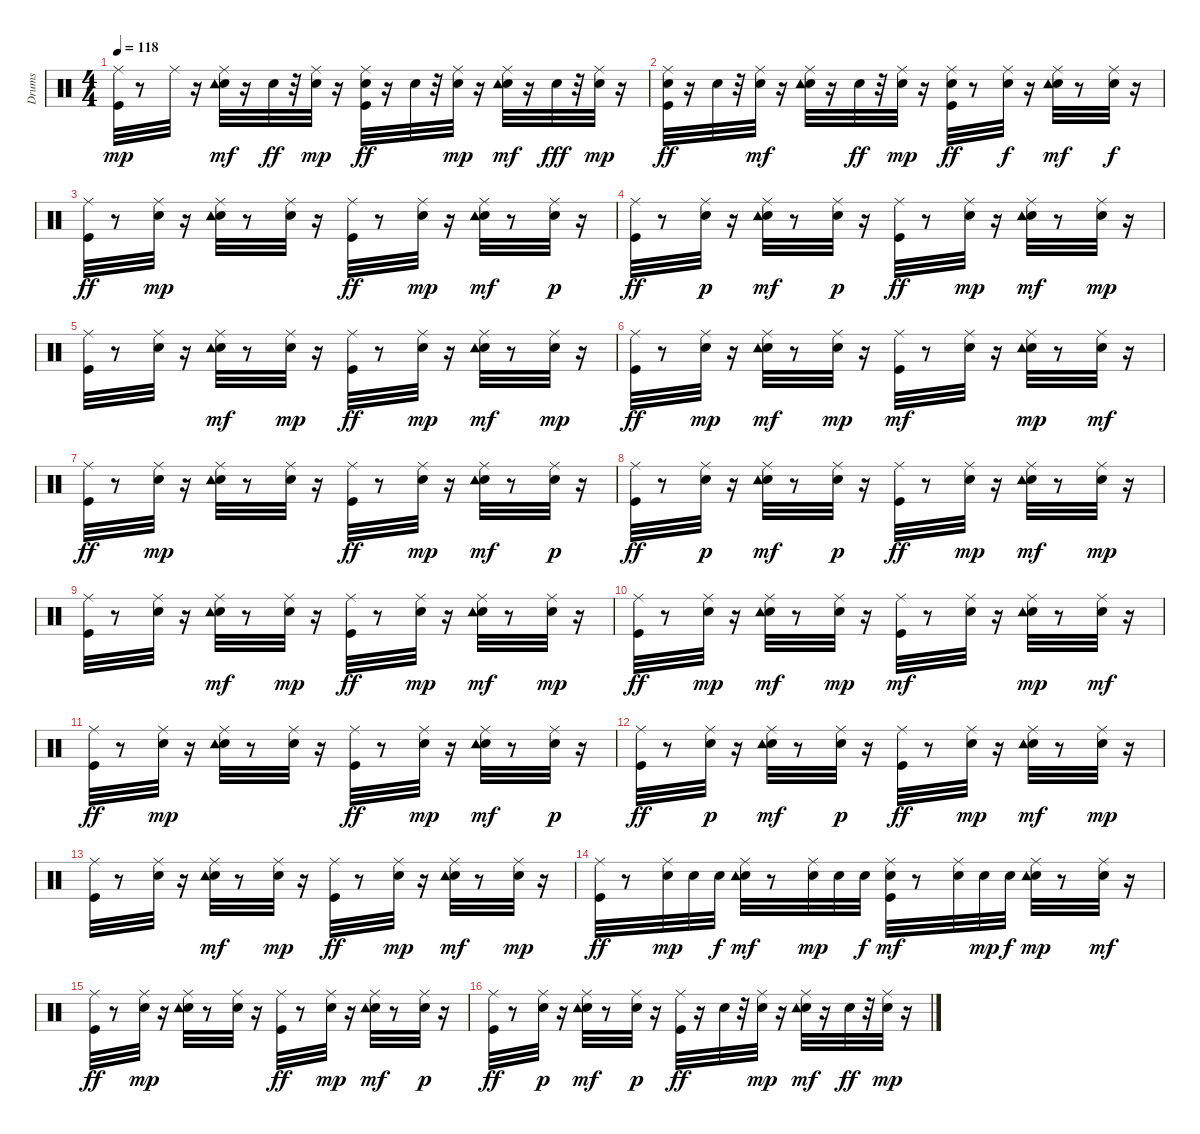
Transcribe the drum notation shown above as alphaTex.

\track ("Drums" "Drums") {instrument percussion}
\staff {score}
\articulation defaults
\ts (4 4)
\tempo 118
\clef neutral
\ks c
("Kick (hit)" "Ride (middle)").32{dy mp} r.8 "Ride (middle)".32 r.16 ("Electric Snare (hit)" "Ride (middle)" "Tambourine (hit)").32{dy mf} r.16 "Electric Snare (hit)".32{dy ff} r.32 ("Electric Snare (hit)" "Ride (middle)").32{dy mp} r.16 ("Electric Snare (hit)" "Ride (middle)" "Kick (hit)").32{dy ff} r.16 "Electric Snare (hit)".32 r.32 ("Electric Snare (hit)" "Ride (middle)").32{dy mp} r.16 ("Electric Snare (hit)" "Ride (middle)" "Tambourine (hit)").32{dy mf} r.16 "Electric Snare (hit)".32{dy fff} r.32 ("Electric Snare (hit)" "Ride (middle)").32{dy mp} r.16 |
("Electric Snare (hit)" "Ride (middle)" "Kick (hit)").32{dy ff} r.16 "Electric Snare (hit)".32 r.32 ("Electric Snare (hit)" "Ride (middle)").32{dy mf} r.16 ("Electric Snare (hit)" "Ride (middle)" "Tambourine (hit)").32 r.16 "Electric Snare (hit)".32{dy ff} r.32 ("Electric Snare (hit)" "Ride (middle)").32{dy mp} r.16 ("Electric Snare (hit)" "Kick (hit)" "Ride (middle)").32{dy ff} r.8 ("Electric Snare (hit)" "Ride (middle)").32{dy f} r.16 ("Electric Snare (hit)" "Ride (middle)" "Tambourine (hit)").32{dy mf} r.8 ("Electric Snare (hit)" "Ride (middle)").32{dy f} r.16 |
("Ride (middle)" "Kick (hit)").32{dy ff} r.8 ("Electric Snare (hit)" "Ride (middle)").32{dy mp} r.16 ("Electric Snare (hit)" "Tambourine (hit)" "Ride (middle)").32 r.8 ("Electric Snare (hit)" "Ride (middle)").32 r.16 ("Ride (middle)" "Kick (hit)").32{dy ff} r.8 ("Electric Snare (hit)" "Ride (middle)").32{dy mp} r.16 ("Electric Snare (hit)" "Ride (middle)" "Tambourine (hit)").32{dy mf} r.8 ("Ride (middle)" "Electric Snare (hit)").32{dy p} r.16 |
("Ride (middle)" "Kick (hit)").32{dy ff} r.8 ("Electric Snare (hit)" "Ride (middle)").32{dy p} r.16 ("Electric Snare (hit)" "Ride (middle)" "Tambourine (hit)").32{dy mf} r.8 ("Ride (middle)" "Electric Snare (hit)").32{dy p} r.16 ("Ride (middle)" "Kick (hit)").32{dy ff} r.8 ("Electric Snare (hit)" "Ride (middle)").32{dy mp} r.16 ("Electric Snare (hit)" "Ride (middle)" "Tambourine (hit)").32{dy mf} r.8 ("Electric Snare (hit)" "Ride (middle)").32{dy mp} r.16 |
("Kick (hit)" "Ride (middle)").32 r.8 ("Electric Snare (hit)" "Ride (middle)").32 r.16 ("Electric Snare (hit)" "Ride (middle)" "Tambourine (hit)").32{dy mf} r.8 ("Electric Snare (hit)" "Ride (middle)").32{dy mp} r.16 ("Ride (middle)" "Kick (hit)").32{dy ff} r.8 ("Electric Snare (hit)" "Ride (middle)").32{dy mp} r.16 ("Electric Snare (hit)" "Ride (middle)" "Tambourine (hit)").32{dy mf} r.8 ("Electric Snare (hit)" "Ride (middle)").32{dy mp} r.16 |
("Ride (middle)" "Kick (hit)").32{dy ff} r.8 ("Electric Snare (hit)" "Ride (middle)").32{dy mp} r.16 ("Electric Snare (hit)" "Ride (middle)" "Tambourine (hit)").32{dy mf} r.8 ("Electric Snare (hit)" "Ride (middle)").32{dy mp} r.16 ("Kick (hit)" "Ride (middle)").32{dy mf} r.8 ("Electric Snare (hit)" "Ride (middle)").32 r.16 ("Electric Snare (hit)" "Ride (middle)" "Tambourine (hit)").32{dy mp} r.8 ("Electric Snare (hit)" "Ride (middle)").32{dy mf} r.16 |
("Ride (middle)" "Kick (hit)").32{dy ff} r.8 ("Electric Snare (hit)" "Ride (middle)").32{dy mp} r.16 ("Electric Snare (hit)" "Tambourine (hit)" "Ride (middle)").32 r.8 ("Electric Snare (hit)" "Ride (middle)").32 r.16 ("Ride (middle)" "Kick (hit)").32{dy ff} r.8 ("Electric Snare (hit)" "Ride (middle)").32{dy mp} r.16 ("Electric Snare (hit)" "Ride (middle)" "Tambourine (hit)").32{dy mf} r.8 ("Ride (middle)" "Electric Snare (hit)").32{dy p} r.16 |
("Ride (middle)" "Kick (hit)").32{dy ff} r.8 ("Electric Snare (hit)" "Ride (middle)").32{dy p} r.16 ("Electric Snare (hit)" "Ride (middle)" "Tambourine (hit)").32{dy mf} r.8 ("Ride (middle)" "Electric Snare (hit)").32{dy p} r.16 ("Ride (middle)" "Kick (hit)").32{dy ff} r.8 ("Electric Snare (hit)" "Ride (middle)").32{dy mp} r.16 ("Electric Snare (hit)" "Ride (middle)" "Tambourine (hit)").32{dy mf} r.8 ("Electric Snare (hit)" "Ride (middle)").32{dy mp} r.16 |
("Kick (hit)" "Ride (middle)").32 r.8 ("Electric Snare (hit)" "Ride (middle)").32 r.16 ("Electric Snare (hit)" "Ride (middle)" "Tambourine (hit)").32{dy mf} r.8 ("Electric Snare (hit)" "Ride (middle)").32{dy mp} r.16 ("Ride (middle)" "Kick (hit)").32{dy ff} r.8 ("Electric Snare (hit)" "Ride (middle)").32{dy mp} r.16 ("Electric Snare (hit)" "Ride (middle)" "Tambourine (hit)").32{dy mf} r.8 ("Electric Snare (hit)" "Ride (middle)").32{dy mp} r.16 |
("Ride (middle)" "Kick (hit)").32{dy ff} r.8 ("Electric Snare (hit)" "Ride (middle)").32{dy mp} r.16 ("Electric Snare (hit)" "Ride (middle)" "Tambourine (hit)").32{dy mf} r.8 ("Electric Snare (hit)" "Ride (middle)").32{dy mp} r.16 ("Kick (hit)" "Ride (middle)").32{dy mf} r.8 ("Electric Snare (hit)" "Ride (middle)").32 r.16 ("Electric Snare (hit)" "Ride (middle)" "Tambourine (hit)").32{dy mp} r.8 ("Electric Snare (hit)" "Ride (middle)").32{dy mf} r.16 |
("Ride (middle)" "Kick (hit)").32{dy ff} r.8 ("Electric Snare (hit)" "Ride (middle)").32{dy mp} r.16 ("Electric Snare (hit)" "Tambourine (hit)" "Ride (middle)").32 r.8 ("Electric Snare (hit)" "Ride (middle)").32 r.16 ("Ride (middle)" "Kick (hit)").32{dy ff} r.8 ("Electric Snare (hit)" "Ride (middle)").32{dy mp} r.16 ("Electric Snare (hit)" "Ride (middle)" "Tambourine (hit)").32{dy mf} r.8 ("Ride (middle)" "Electric Snare (hit)").32{dy p} r.16 |
("Ride (middle)" "Kick (hit)").32{dy ff} r.8 ("Electric Snare (hit)" "Ride (middle)").32{dy p} r.16 ("Electric Snare (hit)" "Ride (middle)" "Tambourine (hit)").32{dy mf} r.8 ("Ride (middle)" "Electric Snare (hit)").32{dy p} r.16 ("Ride (middle)" "Kick (hit)").32{dy ff} r.8 ("Electric Snare (hit)" "Ride (middle)").32{dy mp} r.16 ("Electric Snare (hit)" "Ride (middle)" "Tambourine (hit)").32{dy mf} r.8 ("Electric Snare (hit)" "Ride (middle)").32{dy mp} r.16 |
("Kick (hit)" "Ride (middle)").32 r.8 ("Electric Snare (hit)" "Ride (middle)").32 r.16 ("Electric Snare (hit)" "Ride (middle)" "Tambourine (hit)").32{dy mf} r.8 ("Electric Snare (hit)" "Ride (middle)").32{dy mp} r.16 ("Ride (middle)" "Kick (hit)").32{dy ff} r.8 ("Electric Snare (hit)" "Ride (middle)").32{dy mp} r.16 ("Electric Snare (hit)" "Ride (middle)" "Tambourine (hit)").32{dy mf} r.8 ("Electric Snare (hit)" "Ride (middle)").32{dy mp} r.16 |
("Ride (middle)" "Kick (hit)").32{dy ff} r.8 ("Electric Snare (hit)" "Ride (middle)").32{dy mp} "Electric Snare (hit)".32 "Electric Snare (hit)".32{dy f} ("Electric Snare (hit)" "Ride (middle)" "Tambourine (hit)").32{dy mf} r.8 ("Electric Snare (hit)" "Ride (middle)").32{dy mp} "Electric Snare (hit)".32 "Electric Snare (hit)".32{dy f} ("Electric Snare (hit)" "Kick (hit)" "Ride (middle)").32{dy mf} r.8 ("Electric Snare (hit)" "Ride (middle)").32 "Electric Snare (hit)".32{dy mp} "Electric Snare (hit)".32{dy f} ("Electric Snare (hit)" "Ride (middle)" "Tambourine (hit)").32{dy mp} r.8 ("Electric Snare (hit)" "Ride (middle)").32{dy mf} r.16 |
("Ride (middle)" "Kick (hit)").32{dy ff} r.8 ("Electric Snare (hit)" "Ride (middle)").32{dy mp} r.16 ("Electric Snare (hit)" "Tambourine (hit)" "Ride (middle)").32 r.8 ("Electric Snare (hit)" "Ride (middle)").32 r.16 ("Ride (middle)" "Kick (hit)").32{dy ff} r.8 ("Electric Snare (hit)" "Ride (middle)").32{dy mp} r.16 ("Electric Snare (hit)" "Ride (middle)" "Tambourine (hit)").32{dy mf} r.8 ("Ride (middle)" "Electric Snare (hit)").32{dy p} r.16 |
("Ride (middle)" "Kick (hit)").32{dy ff} r.8 ("Electric Snare (hit)" "Ride (middle)").32{dy p} r.16 ("Electric Snare (hit)" "Ride (middle)" "Tambourine (hit)").32{dy mf} r.8 ("Ride (middle)" "Electric Snare (hit)").32{dy p} r.16 ("Ride (middle)" "Kick (hit)").32{dy ff} r.16 "Electric Snare (hit)".32 r.32 ("Electric Snare (hit)" "Ride (middle)").32{dy mp} r.16 ("Electric Snare (hit)" "Ride (middle)" "Tambourine (hit)").32{dy mf} r.16 "Electric Snare (hit)".32{dy ff} r.32 ("Electric Snare (hit)" "Ride (middle)").32{dy mp} r.16
